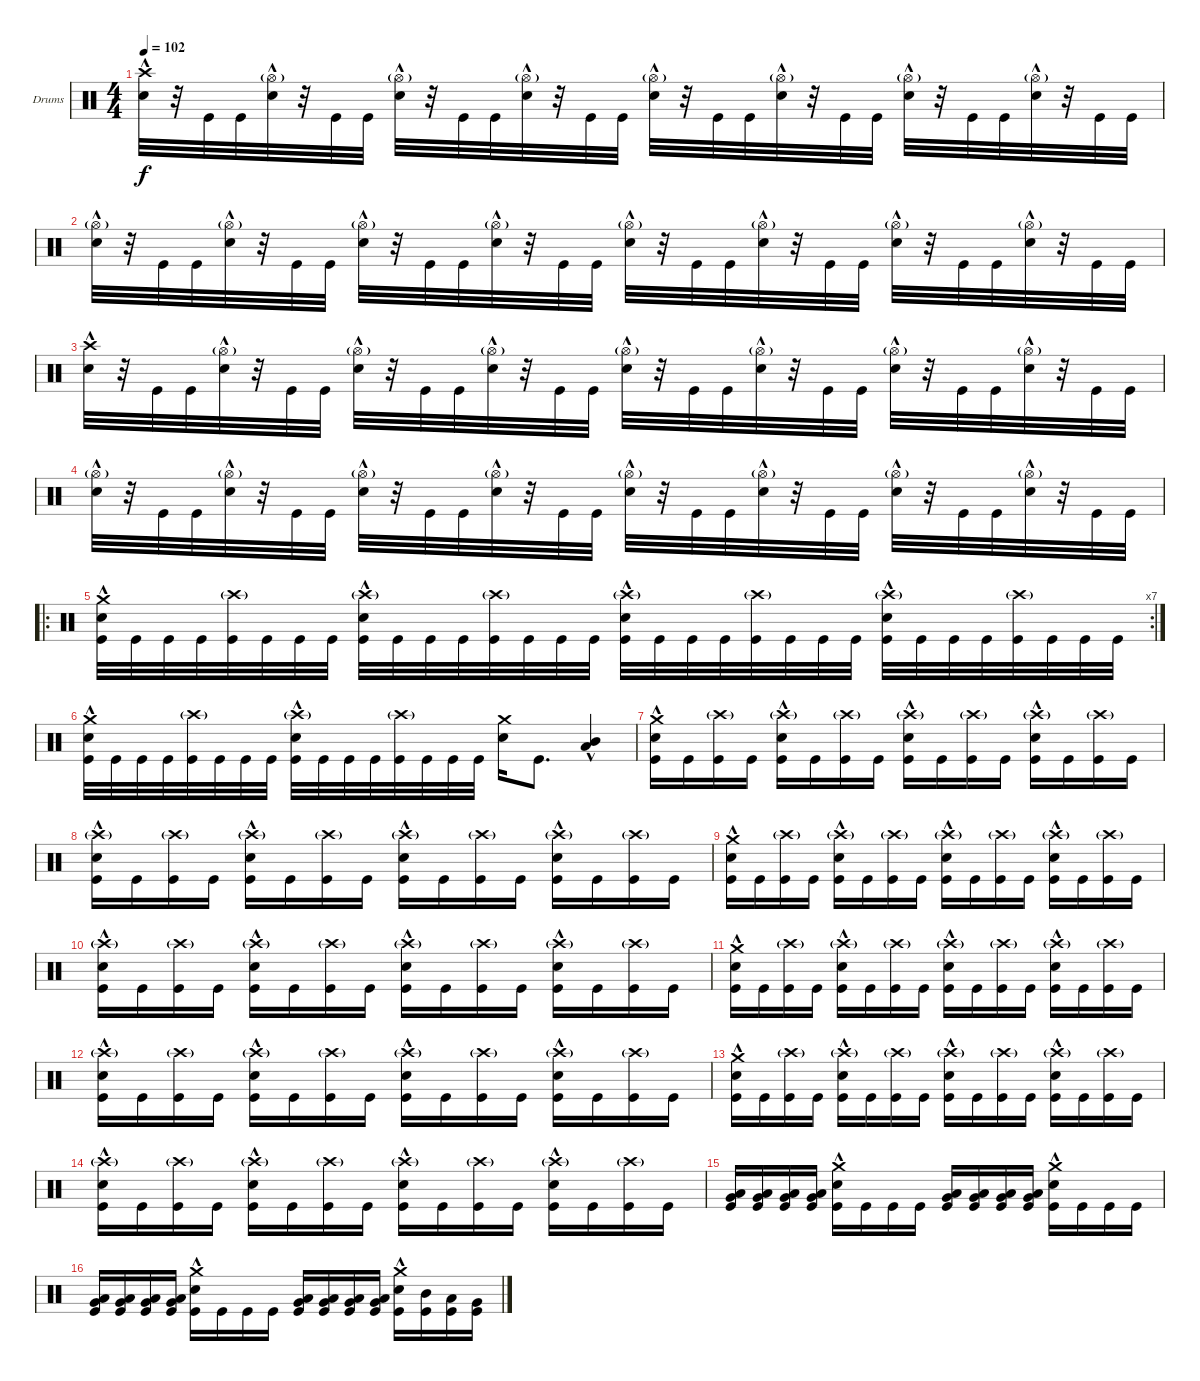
\bracketExtendMode groupsimilarinstruments
\firstSystemTrackNameOrientation horizontal
\otherSystemsTrackNameOrientation horizontal
\track ("Drumkit" "Drums") {instrument percussion}
\staff {score}
\articulation defaults
\ts (4 4)
\tempo 102
\clef neutral
\scale
0.333333
\ks c
("Snare (hit) 2"{hac} "Crash high (hit)").32{dy f} r.32 "Kick (hit)".32 "Kick (hit)".32 ("Snare (hit) 2"{hac} "Hi-Hat (open)"{g}).32 r.32 "Kick (hit)".32 "Kick (hit)".32 ("Snare (hit) 2"{hac} "Hi-Hat (open)"{g}).32 r.32 "Kick (hit)".32 "Kick (hit)".32 ("Snare (hit) 2"{hac} "Hi-Hat (open)"{g}).32 r.32 "Kick (hit)".32 "Kick (hit)".32 ("Snare (hit) 2"{hac} "Hi-Hat (open)"{g}).32 r.32 "Kick (hit)".32 "Kick (hit)".32 ("Snare (hit) 2"{hac} "Hi-Hat (open)"{g}).32 r.32 "Kick (hit)".32 "Kick (hit)".32 ("Snare (hit) 2"{hac} "Hi-Hat (open)"{g}).32 r.32 "Kick (hit)".32 "Kick (hit)".32 ("Snare (hit) 2"{hac} "Hi-Hat (open)"{g}).32 r.32 "Kick (hit)".32 "Kick (hit)".32 |
\scale
0.333333 ("Snare (hit) 2"{hac} "Hi-Hat (open)"{g}).32 r.32 "Kick (hit)".32 "Kick (hit)".32 ("Snare (hit) 2"{hac} "Hi-Hat (open)"{g}).32 r.32 "Kick (hit)".32 "Kick (hit)".32 ("Snare (hit) 2"{hac} "Hi-Hat (open)"{g}).32 r.32 "Kick (hit)".32 "Kick (hit)".32 ("Snare (hit) 2"{hac} "Hi-Hat (open)"{g}).32 r.32 "Kick (hit)".32 "Kick (hit)".32 ("Snare (hit) 2"{hac} "Hi-Hat (open)"{g}).32 r.32 "Kick (hit)".32 "Kick (hit)".32 ("Snare (hit) 2"{hac} "Hi-Hat (open)"{g}).32 r.32 "Kick (hit)".32 "Kick (hit)".32 ("Snare (hit) 2"{hac} "Hi-Hat (open)"{g}).32 r.32 "Kick (hit)".32 "Kick (hit)".32 ("Snare (hit) 2"{hac} "Hi-Hat (open)"{g}).32 r.32 "Kick (hit)".32 "Kick (hit)".32 |
\scale
0.333333 ("Snare (hit) 2"{hac} "Crash high (hit)").32 r.32 "Kick (hit)".32 "Kick (hit)".32 ("Snare (hit) 2"{hac} "Hi-Hat (open)"{g}).32 r.32 "Kick (hit)".32 "Kick (hit)".32 ("Snare (hit) 2"{hac} "Hi-Hat (open)"{g}).32 r.32 "Kick (hit)".32 "Kick (hit)".32 ("Snare (hit) 2"{hac} "Hi-Hat (open)"{g}).32 r.32 "Kick (hit)".32 "Kick (hit)".32 ("Snare (hit) 2"{hac} "Hi-Hat (open)"{g}).32 r.32 "Kick (hit)".32 "Kick (hit)".32 ("Snare (hit) 2"{hac} "Hi-Hat (open)"{g}).32 r.32 "Kick (hit)".32 "Kick (hit)".32 ("Snare (hit) 2"{hac} "Hi-Hat (open)"{g}).32 r.32 "Kick (hit)".32 "Kick (hit)".32 ("Snare (hit) 2"{hac} "Hi-Hat (open)"{g}).32 r.32 "Kick (hit)".32 "Kick (hit)".32 |
\scale
0.333333 ("Snare (hit) 2"{hac} "Hi-Hat (open)"{g}).32 r.32 "Kick (hit)".32 "Kick (hit)".32 ("Snare (hit) 2"{hac} "Hi-Hat (open)"{g}).32 r.32 "Kick (hit)".32 "Kick (hit)".32 ("Snare (hit) 2"{hac} "Hi-Hat (open)"{g}).32 r.32 "Kick (hit)".32 "Kick (hit)".32 ("Snare (hit) 2"{hac} "Hi-Hat (open)"{g}).32 r.32 "Kick (hit)".32 "Kick (hit)".32 ("Snare (hit) 2"{hac} "Hi-Hat (open)"{g}).32 r.32 "Kick (hit)".32 "Kick (hit)".32 ("Snare (hit) 2"{hac} "Hi-Hat (open)"{g}).32 r.32 "Kick (hit)".32 "Kick (hit)".32 ("Snare (hit) 2"{hac} "Hi-Hat (open)"{g}).32 r.32 "Kick (hit)".32 "Kick (hit)".32 ("Snare (hit) 2"{hac} "Hi-Hat (open)"{g}).32 r.32 "Kick (hit)".32 "Kick (hit)".32 |
\ro
\rc 7
\scale
0.397849 ("Kick (hit)" "Snare (hit) 2"{hac} "Crash medium (hit)").32 "Kick (hit)".32 "Kick (hit)".32 "Kick (hit)".32 ("Kick (hit)" "Crash high (hit)"{g}).32 "Kick (hit)".32 "Kick (hit)".32 "Kick (hit)".32 ("Kick (hit)" "Snare (hit) 2"{hac} "Crash high (hit)"{g}).32 "Kick (hit)".32 "Kick (hit)".32 "Kick (hit)".32 ("Kick (hit)" "Crash high (hit)"{g}).32 "Kick (hit)".32 "Kick (hit)".32 "Kick (hit)".32 ("Kick (hit)" "Snare (hit) 2"{hac} "Crash high (hit)"{g}).32 "Kick (hit)".32 "Kick (hit)".32 "Kick (hit)".32 ("Kick (hit)" "Crash high (hit)"{g}).32 "Kick (hit)".32 "Kick (hit)".32 "Kick (hit)".32 ("Kick (hit)" "Snare (hit) 2"{hac} "Crash high (hit)"{g}).32 "Kick (hit)".32 "Kick (hit)".32 "Kick (hit)".32 ("Kick (hit)" "Crash high (hit)"{g}).32 "Kick (hit)".32 "Kick (hit)".32 "Kick (hit)".32 |
\scale
0.301075 ("Kick (hit)" "Snare (hit) 2"{hac} "Crash medium (hit)").32 "Kick (hit)".32 "Kick (hit)".32 "Kick (hit)".32 ("Kick (hit)" "Crash high (hit)"{g}).32 "Kick (hit)".32 "Kick (hit)".32 "Kick (hit)".32 ("Kick (hit)" "Snare (hit) 2"{hac} "Crash high (hit)"{g}).32 "Kick (hit)".32 "Kick (hit)".32 "Kick (hit)".32 ("Kick (hit)" "Crash high (hit)"{g}).32 "Kick (hit)".32 "Kick (hit)".32 "Kick (hit)".32 ("Snare (hit) 2" "Crash medium (hit)").16 "Kick (hit)".8{d} ("Mid Tom (hit)"{hac} "Low Tom (hit)"{hac}).4 |
\scale
0.301075 ("Kick (hit)" "Snare (hit) 2"{hac} "Crash medium (hit)").16 "Kick (hit)".16 ("Kick (hit)" "Crash high (hit)"{g}).16 "Kick (hit)".16 ("Kick (hit)" "Snare (hit) 2"{hac} "Crash high (hit)"{g}).16 "Kick (hit)".16 ("Kick (hit)" "Crash high (hit)"{g}).16 "Kick (hit)".16 ("Kick (hit)" "Snare (hit) 2"{hac} "Crash high (hit)"{g}).16 "Kick (hit)".16 ("Kick (hit)" "Crash high (hit)"{g}).16 "Kick (hit)".16 ("Kick (hit)" "Snare (hit) 2"{hac} "Crash high (hit)"{g}).16 "Kick (hit)".16 ("Kick (hit)" "Crash high (hit)"{g}).16 "Kick (hit)".16 |
\scale
0.333333 ("Kick (hit)" "Snare (hit) 2"{hac} "Crash high (hit)"{g}).16 "Kick (hit)".16 ("Kick (hit)" "Crash high (hit)"{g}).16 "Kick (hit)".16 ("Kick (hit)" "Snare (hit) 2"{hac} "Crash high (hit)"{g}).16 "Kick (hit)".16 ("Kick (hit)" "Crash high (hit)"{g}).16 "Kick (hit)".16 ("Kick (hit)" "Snare (hit) 2"{hac} "Crash high (hit)"{g}).16 "Kick (hit)".16 ("Kick (hit)" "Crash high (hit)"{g}).16 "Kick (hit)".16 ("Kick (hit)" "Snare (hit) 2"{hac} "Crash high (hit)"{g}).16 "Kick (hit)".16 ("Kick (hit)" "Crash high (hit)"{g}).16 "Kick (hit)".16 |
\scale
0.333333 ("Kick (hit)" "Snare (hit) 2"{hac} "Crash medium (hit)").16 "Kick (hit)".16 ("Kick (hit)" "Crash high (hit)"{g}).16 "Kick (hit)".16 ("Kick (hit)" "Snare (hit) 2"{hac} "Crash high (hit)"{g}).16 "Kick (hit)".16 ("Kick (hit)" "Crash high (hit)"{g}).16 "Kick (hit)".16 ("Kick (hit)" "Snare (hit) 2"{hac} "Crash high (hit)"{g}).16 "Kick (hit)".16 ("Kick (hit)" "Crash high (hit)"{g}).16 "Kick (hit)".16 ("Kick (hit)" "Snare (hit) 2"{hac} "Crash high (hit)"{g}).16 "Kick (hit)".16 ("Kick (hit)" "Crash high (hit)"{g}).16 "Kick (hit)".16 |
\scale
0.333333 ("Kick (hit)" "Snare (hit) 2"{hac} "Crash high (hit)"{g}).16 "Kick (hit)".16 ("Kick (hit)" "Crash high (hit)"{g}).16 "Kick (hit)".16 ("Kick (hit)" "Snare (hit) 2"{hac} "Crash high (hit)"{g}).16 "Kick (hit)".16 ("Kick (hit)" "Crash high (hit)"{g}).16 "Kick (hit)".16 ("Kick (hit)" "Snare (hit) 2"{hac} "Crash high (hit)"{g}).16 "Kick (hit)".16 ("Kick (hit)" "Crash high (hit)"{g}).16 "Kick (hit)".16 ("Kick (hit)" "Snare (hit) 2"{hac} "Crash high (hit)"{g}).16 "Kick (hit)".16 ("Kick (hit)" "Crash high (hit)"{g}).16 "Kick (hit)".16 |
\scale
0.333333 ("Kick (hit)" "Snare (hit) 2"{hac} "Crash medium (hit)").16 "Kick (hit)".16 ("Kick (hit)" "Crash high (hit)"{g}).16 "Kick (hit)".16 ("Kick (hit)" "Snare (hit) 2"{hac} "Crash high (hit)"{g}).16 "Kick (hit)".16 ("Kick (hit)" "Crash high (hit)"{g}).16 "Kick (hit)".16 ("Kick (hit)" "Snare (hit) 2"{hac} "Crash high (hit)"{g}).16 "Kick (hit)".16 ("Kick (hit)" "Crash high (hit)"{g}).16 "Kick (hit)".16 ("Kick (hit)" "Snare (hit) 2"{hac} "Crash high (hit)"{g}).16 "Kick (hit)".16 ("Kick (hit)" "Crash high (hit)"{g}).16 "Kick (hit)".16 |
\scale
0.333333 ("Kick (hit)" "Snare (hit) 2"{hac} "Crash high (hit)"{g}).16 "Kick (hit)".16 ("Kick (hit)" "Crash high (hit)"{g}).16 "Kick (hit)".16 ("Kick (hit)" "Snare (hit) 2"{hac} "Crash high (hit)"{g}).16 "Kick (hit)".16 ("Kick (hit)" "Crash high (hit)"{g}).16 "Kick (hit)".16 ("Kick (hit)" "Snare (hit) 2"{hac} "Crash high (hit)"{g}).16 "Kick (hit)".16 ("Kick (hit)" "Crash high (hit)"{g}).16 "Kick (hit)".16 ("Kick (hit)" "Snare (hit) 2"{hac} "Crash high (hit)"{g}).16 "Kick (hit)".16 ("Kick (hit)" "Crash high (hit)"{g}).16 "Kick (hit)".16 |
\scale
0.333333 ("Kick (hit)" "Snare (hit) 2"{hac} "Crash medium (hit)").16 "Kick (hit)".16 ("Kick (hit)" "Crash high (hit)"{g}).16 "Kick (hit)".16 ("Kick (hit)" "Snare (hit) 2"{hac} "Crash high (hit)"{g}).16 "Kick (hit)".16 ("Kick (hit)" "Crash high (hit)"{g}).16 "Kick (hit)".16 ("Kick (hit)" "Snare (hit) 2"{hac} "Crash high (hit)"{g}).16 "Kick (hit)".16 ("Kick (hit)" "Crash high (hit)"{g}).16 "Kick (hit)".16 ("Kick (hit)" "Snare (hit) 2"{hac} "Crash high (hit)"{g}).16 "Kick (hit)".16 ("Kick (hit)" "Crash high (hit)"{g}).16 "Kick (hit)".16 |
\scale
0.333333 ("Kick (hit)" "Snare (hit) 2"{hac} "Crash high (hit)"{g}).16 "Kick (hit)".16 ("Kick (hit)" "Crash high (hit)"{g}).16 "Kick (hit)".16 ("Kick (hit)" "Snare (hit) 2"{hac} "Crash high (hit)"{g}).16 "Kick (hit)".16 ("Kick (hit)" "Crash high (hit)"{g}).16 "Kick (hit)".16 ("Kick (hit)" "Snare (hit) 2"{hac} "Crash high (hit)"{g}).16 "Kick (hit)".16 ("Kick (hit)" "Crash high (hit)"{g}).16 "Kick (hit)".16 ("Kick (hit)" "Snare (hit) 2"{hac} "Crash high (hit)"{g}).16 "Kick (hit)".16 ("Kick (hit)" "Crash high (hit)"{g}).16 "Kick (hit)".16 |
\scale
0.333333 ("Kick (hit)" "Very Low Tom (hit)" "Low Tom (hit)").16 ("Kick (hit)" "Very Low Tom (hit)" "Low Tom (hit)").16 ("Kick (hit)" "Very Low Tom (hit)" "Low Tom (hit)").16 ("Kick (hit)" "Very Low Tom (hit)" "Low Tom (hit)").16 ("Kick (hit)" "Snare (hit) 2"{hac} "Crash medium (hit)").16 "Kick (hit)".16 "Kick (hit)".16 "Kick (hit)".16 ("Kick (hit)" "Very Low Tom (hit)" "Low Tom (hit)").16 ("Kick (hit)" "Very Low Tom (hit)" "Low Tom (hit)").16 ("Kick (hit)" "Very Low Tom (hit)" "Low Tom (hit)").16 ("Kick (hit)" "Very Low Tom (hit)" "Low Tom (hit)").16 ("Kick (hit)" "Snare (hit) 2"{hac} "Crash medium (hit)").16 "Kick (hit)".16 "Kick (hit)".16 "Kick (hit)".16 |
\scale
0.333333 ("Kick (hit)" "Very Low Tom (hit)" "Low Tom (hit)").16 ("Kick (hit)" "Very Low Tom (hit)" "Low Tom (hit)").16 ("Kick (hit)" "Very Low Tom (hit)" "Low Tom (hit)").16 ("Kick (hit)" "Very Low Tom (hit)" "Low Tom (hit)").16 ("Kick (hit)" "Snare (hit) 2"{hac} "Crash medium (hit)").16 "Kick (hit)".16 "Kick (hit)".16 "Kick (hit)".16 ("Kick (hit)" "Very Low Tom (hit)" "Low Tom (hit)").16 ("Kick (hit)" "Very Low Tom (hit)" "Low Tom (hit)").16 ("Kick (hit)" "Very Low Tom (hit)" "Low Tom (hit)").16 ("Kick (hit)" "Very Low Tom (hit)" "Low Tom (hit)").16 ("Kick (hit)" "Snare (hit) 2"{hac} "Crash medium (hit)").16 ("Kick (hit)" "Mid Tom (hit)").16 ("Kick (hit)" "Low Tom (hit)").16 ("Kick (hit)" "Very Low Tom (hit)").16
